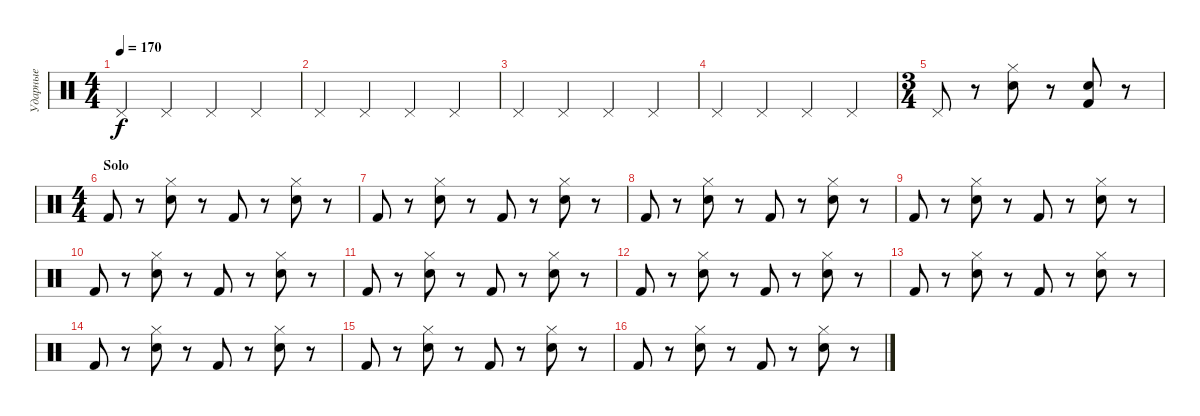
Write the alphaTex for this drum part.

\track ("Ударные" "Ударные") {instrument percussion}
\staff {score}
\articulation defaults
\ts (4 4)
\tempo 170
\clef neutral
\ks c "Pedal Hi-Hat (hit)".4{dy f} "Pedal Hi-Hat (hit)".4 "Pedal Hi-Hat (hit)".4 "Pedal Hi-Hat (hit)".4
|
"Pedal Hi-Hat (hit)".4 "Pedal Hi-Hat (hit)".4 "Pedal Hi-Hat (hit)".4 "Pedal Hi-Hat (hit)".4 |
"Pedal Hi-Hat (hit)".4 "Pedal Hi-Hat (hit)".4 "Pedal Hi-Hat (hit)".4 "Pedal Hi-Hat (hit)".4 |
"Pedal Hi-Hat (hit)".4 "Pedal Hi-Hat (hit)".4 "Pedal Hi-Hat (hit)".4 "Pedal Hi-Hat (hit)".4 |
\ts (3 4)
"Pedal Hi-Hat (hit)".8 r.8 ("Electric Snare (hit)" "Hi-Hat (closed)").8 r.8 ("Snare (hit) 2" "Kick (hit) 2").8{bd 120} r.8 |
\ts (4 4)
\section ("" "Solo")
"Kick (hit) 2".8 r.8 ("Hi-Hat (closed)" "Electric Snare (hit)").8 r.8 "Kick (hit) 2".8 r.8 ("Hi-Hat (closed)" "Electric Snare (hit)").8 r.8 |
"Kick (hit) 2".8 r.8 ("Hi-Hat (closed)" "Electric Snare (hit)").8 r.8 "Kick (hit) 2".8 r.8 ("Hi-Hat (closed)" "Electric Snare (hit)").8 r.8 |
"Kick (hit) 2".8 r.8 ("Hi-Hat (closed)" "Electric Snare (hit)").8 r.8 "Kick (hit) 2".8 r.8 ("Hi-Hat (closed)" "Electric Snare (hit)").8 r.8 |
"Kick (hit) 2".8 r.8 ("Hi-Hat (closed)" "Electric Snare (hit)").8 r.8 "Kick (hit) 2".8 r.8 ("Hi-Hat (closed)" "Electric Snare (hit)").8 r.8 |
"Kick (hit) 2".8 r.8 ("Hi-Hat (closed)" "Electric Snare (hit)").8 r.8 "Kick (hit) 2".8 r.8 ("Hi-Hat (closed)" "Electric Snare (hit)").8 r.8 |
"Kick (hit) 2".8 r.8 ("Hi-Hat (closed)" "Electric Snare (hit)").8 r.8 "Kick (hit) 2".8 r.8 ("Hi-Hat (closed)" "Electric Snare (hit)").8 r.8 |
"Kick (hit) 2".8 r.8 ("Hi-Hat (closed)" "Electric Snare (hit)").8 r.8 "Kick (hit) 2".8 r.8 ("Hi-Hat (closed)" "Electric Snare (hit)").8 r.8 |
"Kick (hit) 2".8 r.8 ("Hi-Hat (closed)" "Electric Snare (hit)").8 r.8 "Kick (hit) 2".8 r.8 ("Hi-Hat (closed)" "Electric Snare (hit)").8 r.8 |
"Kick (hit) 2".8 r.8 ("Hi-Hat (closed)" "Electric Snare (hit)").8 r.8 "Kick (hit) 2".8 r.8 ("Hi-Hat (closed)" "Electric Snare (hit)").8 r.8 |
"Kick (hit) 2".8 r.8 ("Hi-Hat (closed)" "Electric Snare (hit)").8 r.8 "Kick (hit) 2".8 r.8 ("Hi-Hat (closed)" "Electric Snare (hit)").8 r.8 |
"Kick (hit) 2".8 r.8 ("Hi-Hat (closed)" "Electric Snare (hit)").8 r.8 "Kick (hit) 2".8 r.8 ("Hi-Hat (closed)" "Electric Snare (hit)").8 r.8
